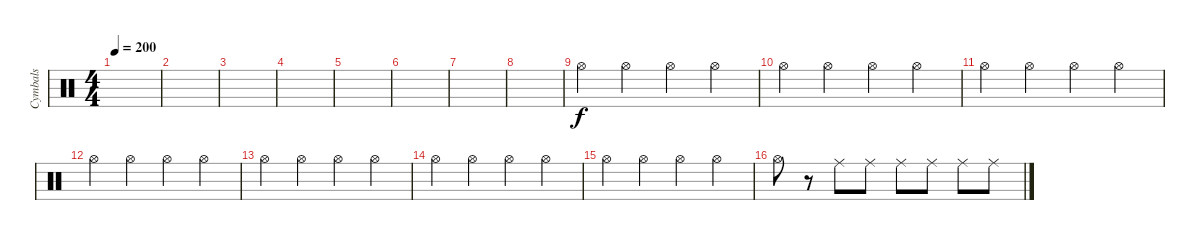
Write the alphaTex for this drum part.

\track ("Cymbals" "Cymbals") {instrument percussion}
\staff {score}
\articulation defaults
\ts (4 4)
\tempo 200
\clef neutral
\ks c
|
|
|
|
|
|
|
|
"Hi-Hat (open)".4 "Hi-Hat (open)".4 "Hi-Hat (open)".4 "Hi-Hat (open)".4 |
"Hi-Hat (open)".4 "Hi-Hat (open)".4 "Hi-Hat (open)".4 "Hi-Hat (open)".4 |
"Hi-Hat (open)".4 "Hi-Hat (open)".4 "Hi-Hat (open)".4 "Hi-Hat (open)".4 |
"Hi-Hat (open)".4 "Hi-Hat (open)".4 "Hi-Hat (open)".4 "Hi-Hat (open)".4 |
"Hi-Hat (open)".4 "Hi-Hat (open)".4 "Hi-Hat (open)".4 "Hi-Hat (open)".4 |
"Hi-Hat (open)".4 "Hi-Hat (open)".4 "Hi-Hat (open)".4 "Hi-Hat (open)".4 |
"Hi-Hat (open)".4 "Hi-Hat (open)".4 "Hi-Hat (open)".4 "Hi-Hat (open)".4 |
"Hi-Hat (open)".8 r.8 "Ride (middle)".8 "Ride (middle)".8 "Ride (middle)".8 "Ride (middle)".8 "Ride (middle)".8 "Ride (middle)".8
